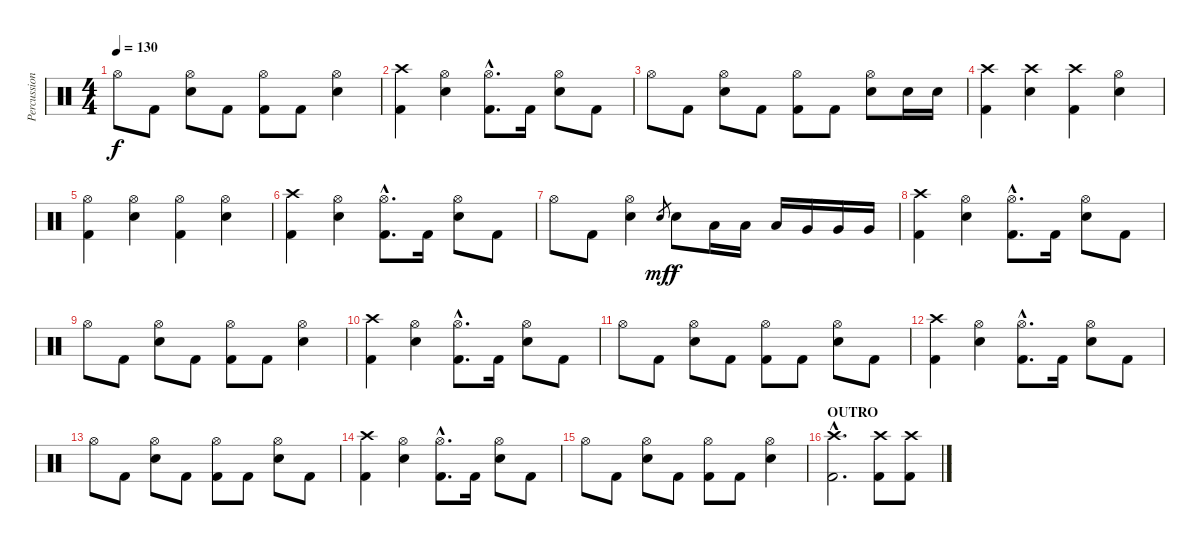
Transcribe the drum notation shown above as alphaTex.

\track ("Percussion" "Percussion") {instrument percussion}
\staff {score}
\articulation defaults
\ts (4 4)
\tempo 130
\clef neutral
\ks c "Hi-Hat (open)".8{dy f} "Kick (hit) 2".8
("Hi-Hat (open)" "Electric Snare (hit)").8 "Kick (hit) 2".8 ("Hi-Hat (open)" "Kick (hit) 2").8 "Kick (hit) 2".8 ("Hi-Hat (open)" "Electric Snare (hit)").4 |
("Crash high (hit)" "Kick (hit) 2").4 ("Hi-Hat (open)" "Electric Snare (hit)").4 ("Hi-Hat (open)"{hac} "Kick (hit) 2"{hac}).8{d} "Kick (hit) 2".16 ("Hi-Hat (open)" "Electric Snare (hit)").8 "Kick (hit) 2".8 |
"Hi-Hat (open)".8 "Kick (hit) 2".8 ("Hi-Hat (open)" "Electric Snare (hit)").8 "Kick (hit) 2".8 ("Hi-Hat (open)" "Kick (hit) 2").8 "Kick (hit) 2".8 ("Hi-Hat (open)" "Electric Snare (hit)").8 "Electric Snare (hit)".16 "Electric Snare (hit)".16 |
("Crash high (hit)" "Kick (hit) 2").4 ("Crash high (hit)" "Electric Snare (hit)").4 ("Crash high (hit)" "Kick (hit) 2").4 ("Hi-Hat (open)" "Electric Snare (hit)").4 |
("Hi-Hat (open)" "Kick (hit) 2").4 ("Hi-Hat (open)" "Electric Snare (hit)").4 ("Hi-Hat (open)" "Kick (hit) 2").4 ("Hi-Hat (open)" "Electric Snare (hit)").4 |
("Crash high (hit)" "Kick (hit) 2").4 ("Hi-Hat (open)" "Electric Snare (hit)").4 ("Hi-Hat (open)"{hac} "Kick (hit) 2"{hac}).8{d} "Kick (hit) 2".16 ("Hi-Hat (open)" "Electric Snare (hit)").8 "Kick (hit) 2".8 |
"Hi-Hat (open)".8 "Kick (hit) 2".8 ("Hi-Hat (open)" "Electric Snare (hit)").4 "Electric Snare (hit)".8{gr dy mf} "Electric Snare (hit)".8{dy f} "Low Tom (hit)".16 "Low Tom (hit)".16 "Low Tom (hit)".16 "Very Low Tom (hit)".16 "Very Low Tom (hit)".16 "Very Low Tom (hit)".16 |
("Crash high (hit)" "Kick (hit) 2").4 ("Hi-Hat (open)" "Electric Snare (hit)").4 ("Hi-Hat (open)"{hac} "Kick (hit) 2"{hac}).8{d} "Kick (hit) 2".16 ("Hi-Hat (open)" "Electric Snare (hit)").8 "Kick (hit) 2".8 |
"Hi-Hat (open)".8 "Kick (hit) 2".8 ("Hi-Hat (open)" "Electric Snare (hit)").8 "Kick (hit) 2".8 ("Hi-Hat (open)" "Kick (hit) 2").8 "Kick (hit) 2".8 ("Hi-Hat (open)" "Electric Snare (hit)").4 |
("Crash high (hit)" "Kick (hit) 2").4 ("Hi-Hat (open)" "Electric Snare (hit)").4 ("Hi-Hat (open)"{hac} "Kick (hit) 2"{hac}).8{d} "Kick (hit) 2".16 ("Hi-Hat (open)" "Electric Snare (hit)").8 "Kick (hit) 2".8 |
"Hi-Hat (open)".8 "Kick (hit) 2".8 ("Hi-Hat (open)" "Electric Snare (hit)").8 "Kick (hit) 2".8 ("Hi-Hat (open)" "Kick (hit) 2").8 "Kick (hit) 2".8 ("Hi-Hat (open)" "Electric Snare (hit)").8 "Kick (hit) 2".8 |
("Crash high (hit)" "Kick (hit) 2").4 ("Hi-Hat (open)" "Electric Snare (hit)").4 ("Hi-Hat (open)"{hac} "Kick (hit) 2"{hac}).8{d} "Kick (hit) 2".16 ("Hi-Hat (open)" "Electric Snare (hit)").8 "Kick (hit) 2".8 |
"Hi-Hat (open)".8 "Kick (hit) 2".8 ("Hi-Hat (open)" "Electric Snare (hit)").8 "Kick (hit) 2".8 ("Hi-Hat (open)" "Kick (hit) 2").8 "Kick (hit) 2".8 ("Hi-Hat (open)" "Electric Snare (hit)").8 "Kick (hit) 2".8 |
("Crash high (hit)" "Kick (hit) 2").4 ("Hi-Hat (open)" "Electric Snare (hit)").4 ("Hi-Hat (open)"{hac} "Kick (hit) 2"{hac}).8{d} "Kick (hit) 2".16 ("Hi-Hat (open)" "Electric Snare (hit)").8 "Kick (hit) 2".8 |
"Hi-Hat (open)".8 "Kick (hit) 2".8 ("Hi-Hat (open)" "Electric Snare (hit)").8 "Kick (hit) 2".8 ("Hi-Hat (open)" "Kick (hit) 2").8 "Kick (hit) 2".8 ("Hi-Hat (open)" "Electric Snare (hit)").4 |
\section ("" "OUTRO")
("Crash high (hit)"{hac} "Kick (hit) 2"{hac}).2{d} ("Crash high (hit)" "Kick (hit) 2").8 ("Crash high (hit)" "Kick (hit) 2").8
